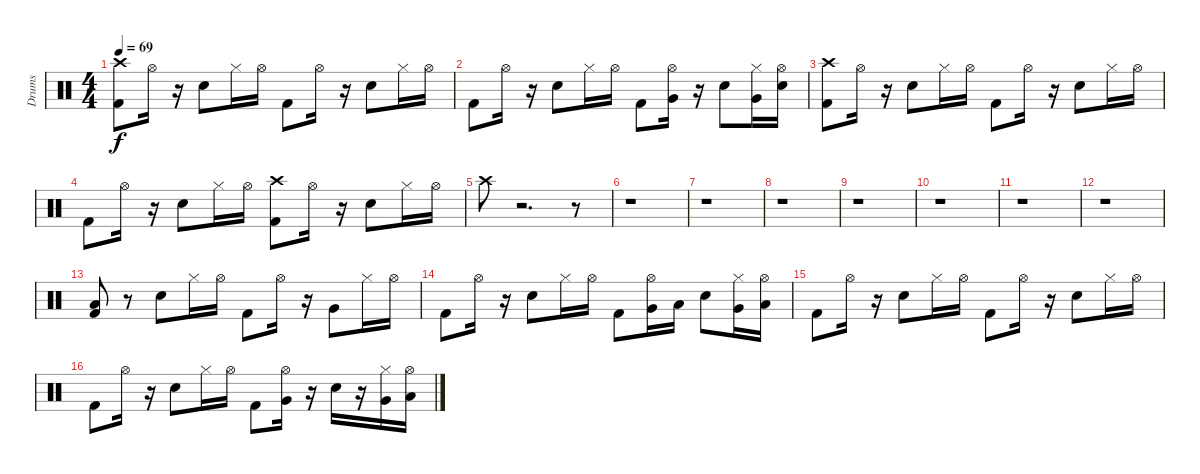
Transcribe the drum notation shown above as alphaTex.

\track ("Drums" "Drums") {instrument percussion}
\staff {score}
\articulation defaults
\ts (4 4)
\tempo 69
\clef neutral
\ks c
("Crash high (hit)" "Kick (hit) 2").8{dy f} "Hi-Hat (open)".16 r.16 "Snare (hit) 2".8 "Hi-Hat (closed)".16 "Hi-Hat (open)".16 "Kick (hit) 2".8 "Hi-Hat (open)".16 r.16 "Snare (hit) 2".8 "Hi-Hat (closed)".16 "Hi-Hat (open)".16 |
"Kick (hit) 2".8 "Hi-Hat (open)".16 r.16 "Snare (hit) 2".8 "Hi-Hat (closed)".16 "Hi-Hat (open)".16 "Kick (hit) 2".8 ("Very Low Tom (hit)" "Hi-Hat (open)").16 r.16 "Snare (hit) 2".8 ("Very Low Tom (hit)" "Hi-Hat (closed)").16 ("Snare (hit) 2" "Hi-Hat (open)").16 |
("Crash high (hit)" "Kick (hit) 2").8 "Hi-Hat (open)".16 r.16 "Snare (hit) 2".8 "Hi-Hat (closed)".16 "Hi-Hat (open)".16 "Kick (hit) 2".8 "Hi-Hat (open)".16 r.16 "Snare (hit) 2".8 "Hi-Hat (closed)".16 "Hi-Hat (open)".16 |
"Kick (hit) 2".8 "Hi-Hat (open)".16 r.16 "Snare (hit) 2".8 "Hi-Hat (closed)".16 "Hi-Hat (open)".16 ("Crash high (hit)" "Kick (hit) 2").8 "Hi-Hat (open)".16 r.16 "Snare (hit) 2".8 "Hi-Hat (closed)".16 "Hi-Hat (open)".16 |
"Crash high (hit)".8 r.2{d} r.8 |
r.1 |
r.1 |
r.1 |
r.1 |
r.1 |
r.1 |
r.1 |
("Low Floor Tom (hit)" "Kick (hit) 2").8 r.8 "Snare (hit) 2".8 "Hi-Hat (closed)".16 "Hi-Hat (open)".16 "Kick (hit) 2".8 "Hi-Hat (open)".16 r.16 "Very Low Tom (hit)".8 "Hi-Hat (closed)".16 "Hi-Hat (open)".16 |
"Kick (hit) 2".8 "Hi-Hat (open)".16 r.16 "Snare (hit) 2".8 "Hi-Hat (closed)".16 "Hi-Hat (open)".16 "Kick (hit) 2".8 ("Very Low Tom (hit)" "Hi-Hat (open)").16 "Low Floor Tom (hit)".16 "Snare (hit) 2".8 ("Very Low Tom (hit)" "Hi-Hat (closed)").16 ("Low Tom (hit)" "Hi-Hat (open)").16 |
"Kick (hit) 2".8 "Hi-Hat (open)".16 r.16 "Snare (hit) 2".8 "Hi-Hat (closed)".16 "Hi-Hat (open)".16 "Kick (hit) 2".8 "Hi-Hat (open)".16 r.16 "Snare (hit) 2".8 "Hi-Hat (closed)".16 "Hi-Hat (open)".16 |
"Kick (hit) 2".8 "Hi-Hat (open)".16 r.16 "Snare (hit) 2".8 "Hi-Hat (closed)".16 "Hi-Hat (open)".16 "Kick (hit) 2".8 ("Very Low Tom (hit)" "Hi-Hat (open)").16 r.16 "Snare (hit) 2".16 r.16 ("Very Low Tom (hit)" "Hi-Hat (closed)").16 ("Low Tom (hit)" "Hi-Hat (open)").16
